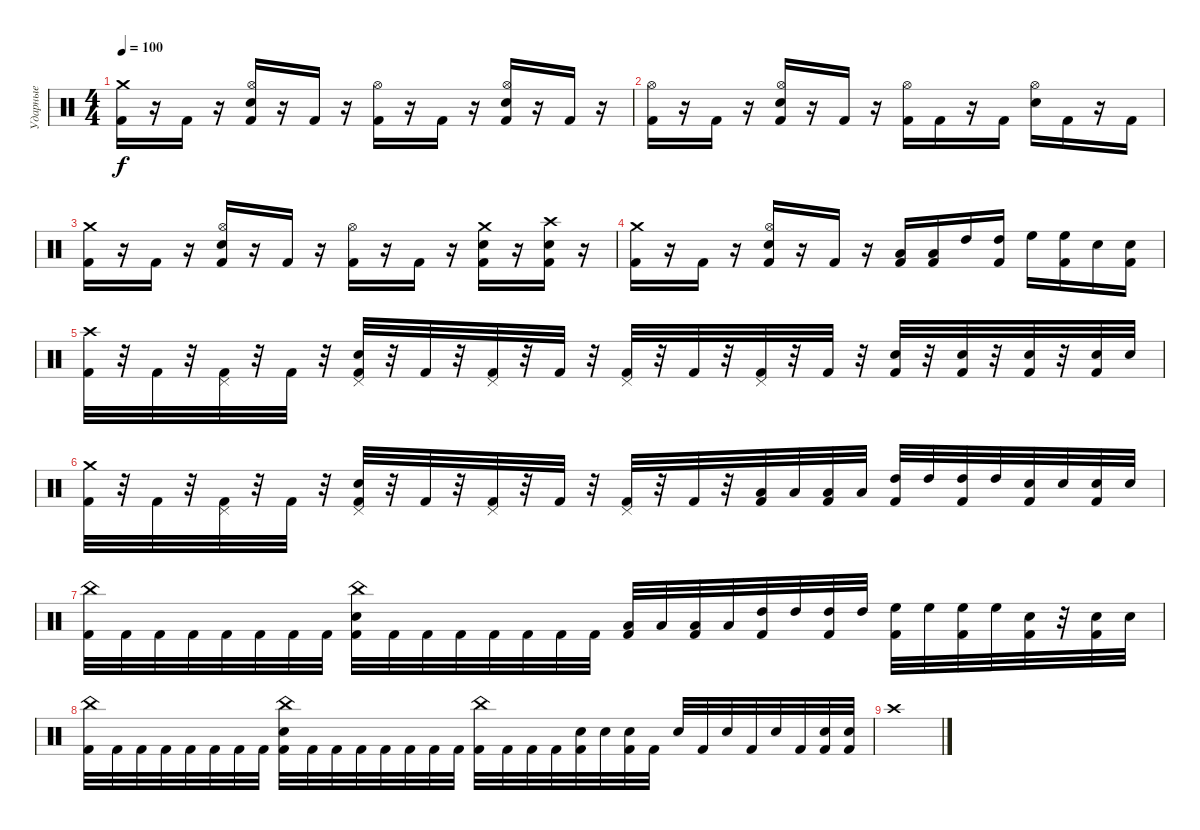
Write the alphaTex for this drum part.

\track ("Ударные" "Ударные") {instrument percussion}
\staff {score}
\articulation defaults
\ts (4 4)
\tempo 100
\clef neutral
\ks c
("Crash medium (hit)" "Kick (hit) 2").16{dy f} r.16 "Kick (hit) 2".16 r.16 ("Hi-Hat (open)" "Snare (hit) 2" "Kick (hit) 2").16 r.16 "Kick (hit) 2".16 r.16 ("Hi-Hat (open)" "Kick (hit) 2").16 r.16 "Kick (hit) 2".16 r.16 ("Hi-Hat (open)" "Snare (hit) 2" "Kick (hit) 2").16 r.16 "Kick (hit) 2".16 r.16 |
("Hi-Hat (open)" "Kick (hit) 2").16 r.16 "Kick (hit) 2".16 r.16 ("Hi-Hat (open)" "Snare (hit) 2" "Kick (hit) 2").16 r.16 "Kick (hit) 2".16 r.16 ("Hi-Hat (open)" "Kick (hit) 2").16 "Kick (hit) 2".16 r.16 "Kick (hit) 2".16 ("Hi-Hat (open)" "Snare (hit) 2").16 "Kick (hit) 2".16 r.16 "Kick (hit) 2".16 |
("Crash medium (hit)" "Kick (hit) 2").16 r.16 "Kick (hit) 2".16 r.16 ("Hi-Hat (open)" "Snare (hit) 2" "Kick (hit) 2").16 r.16 "Kick (hit) 2".16 r.16 ("Hi-Hat (open)" "Kick (hit) 2").16 r.16 "Kick (hit) 2".16 r.16 ("Crash medium (hit)" "Snare (hit) 2" "Kick (hit) 2").16 r.16 ("Crash high (hit)" "Snare (hit) 2" "Kick (hit) 2").16 r.16 |
("Crash medium (hit)" "Kick (hit) 2").16 r.16 "Kick (hit) 2".16 r.16 ("Hi-Hat (open)" "Snare (hit) 2" "Kick (hit) 2").16 r.16 "Kick (hit) 2".16 r.16 ("Low Tom (hit)" "Kick (hit) 2").16 ("Low Tom (hit)" "Kick (hit) 2").16 "High Tom (hit)".16 ("High Tom (hit)" "Kick (hit) 2").16 "High Floor Tom (hit)".16 ("High Floor Tom (hit)" "Kick (hit) 2").16 "Snare (hit) 2".16 ("Snare (hit) 2" "Kick (hit) 2").16 |
("Crash high (hit)" "Kick (hit) 2").32 r.32 "Kick (hit) 2".32 r.32 ("Pedal Hi-Hat (hit)" "Kick (hit) 2").32 r.32 "Kick (hit) 2".32 r.32 ("Pedal Hi-Hat (hit)" "Snare (hit) 2" "Kick (hit) 2").32 r.32 "Kick (hit) 2".32 r.32 ("Pedal Hi-Hat (hit)" "Kick (hit) 2").32 r.32 "Kick (hit) 2".32 r.32 ("Pedal Hi-Hat (hit)" "Kick (hit) 2").32 r.32 "Kick (hit) 2".32 r.32 ("Pedal Hi-Hat (hit)" "Kick (hit) 2").32 r.32 "Kick (hit) 2".32 r.32 ("Snare (hit) 2" "Kick (hit) 2").32 r.32 ("Snare (hit) 2" "Kick (hit) 2").32 r.32 ("Snare (hit) 2" "Kick (hit) 2").32 r.32 ("Snare (hit) 2" "Kick (hit) 2").32 "Snare (hit) 2".32 |
("Crash medium (hit)" "Kick (hit) 2").32 r.32 "Kick (hit) 2".32 r.32 ("Pedal Hi-Hat (hit)" "Kick (hit) 2").32 r.32 "Kick (hit) 2".32 r.32 ("Pedal Hi-Hat (hit)" "Snare (hit) 2" "Kick (hit) 2").32 r.32 "Kick (hit) 2".32 r.32 ("Pedal Hi-Hat (hit)" "Kick (hit) 2").32 r.32 "Kick (hit) 2".32 r.32 ("Pedal Hi-Hat (hit)" "Kick (hit) 2").32 r.32 "Kick (hit) 2".32 r.32 ("Low Tom (hit)" "Kick (hit) 2").32 "Low Tom (hit)".32 ("Low Tom (hit)" "Kick (hit) 2").32 "Low Tom (hit)".32 ("High Tom (hit)" "Kick (hit) 2").32 "High Tom (hit)".32 ("High Tom (hit)" "Kick (hit) 2").32 "High Tom (hit)".32 ("Snare (hit) 2" "Kick (hit) 2").32 "Snare (hit) 2".32 ("Snare (hit) 2" "Kick (hit) 2").32 "Snare (hit) 2".32 |
("China (hit)" "Kick (hit) 2").32 "Kick (hit) 2".32 "Kick (hit) 2".32 "Kick (hit) 2".32 "Kick (hit) 2".32 "Kick (hit) 2".32 "Kick (hit) 2".32 "Kick (hit) 2".32 ("China (hit)" "Snare (hit) 2" "Kick (hit) 2").32 "Kick (hit) 2".32 "Kick (hit) 2".32 "Kick (hit) 2".32 "Kick (hit) 2".32 "Kick (hit) 2".32 "Kick (hit) 2".32 "Kick (hit) 2".32 ("Low Tom (hit)" "Kick (hit) 2").32 "Low Tom (hit)".32 ("Low Tom (hit)" "Kick (hit) 2").32 "Low Tom (hit)".32 ("High Tom (hit)" "Kick (hit) 2").32 "High Tom (hit)".32 ("High Tom (hit)" "Kick (hit) 2").32 "High Tom (hit)".32 ("High Floor Tom (hit)" "Kick (hit) 2").32 "High Floor Tom (hit)".32 ("High Floor Tom (hit)" "Kick (hit) 2").32 "High Floor Tom (hit)".32 ("Snare (hit) 2" "Kick (hit) 2").32 r.32 ("Snare (hit) 2" "Kick (hit) 2").32 "Snare (hit) 2".32 |
("China (hit)" "Kick (hit) 2").32 "Kick (hit) 2".32 "Kick (hit) 2".32 "Kick (hit) 2".32 "Kick (hit) 2".32 "Kick (hit) 2".32 "Kick (hit) 2".32 "Kick (hit) 2".32 ("China (hit)" "Snare (hit) 2" "Kick (hit) 2").32 "Kick (hit) 2".32 "Kick (hit) 2".32 "Kick (hit) 2".32 "Kick (hit) 2".32 "Kick (hit) 2".32 "Kick (hit) 2".32 "Kick (hit) 2".32 ("China (hit)" "Kick (hit) 2").32 "Kick (hit) 2".32 "Kick (hit) 2".32 "Kick (hit) 2".32 ("Snare (hit) 2" "Kick (hit) 2").32 "Snare (hit) 2".32 ("Snare (hit) 2" "Kick (hit) 2").32 "Kick (hit) 2".32 "Snare (hit) 2".32 "Kick (hit) 2".32 "Snare (hit) 2".32 "Kick (hit) 2".32 "Snare (hit) 2".32 "Kick (hit) 2".32 ("Snare (hit) 2" "Kick (hit) 2").32 ("Snare (hit) 2" "Kick (hit) 2").32 |
"Crash high (hit)".1
